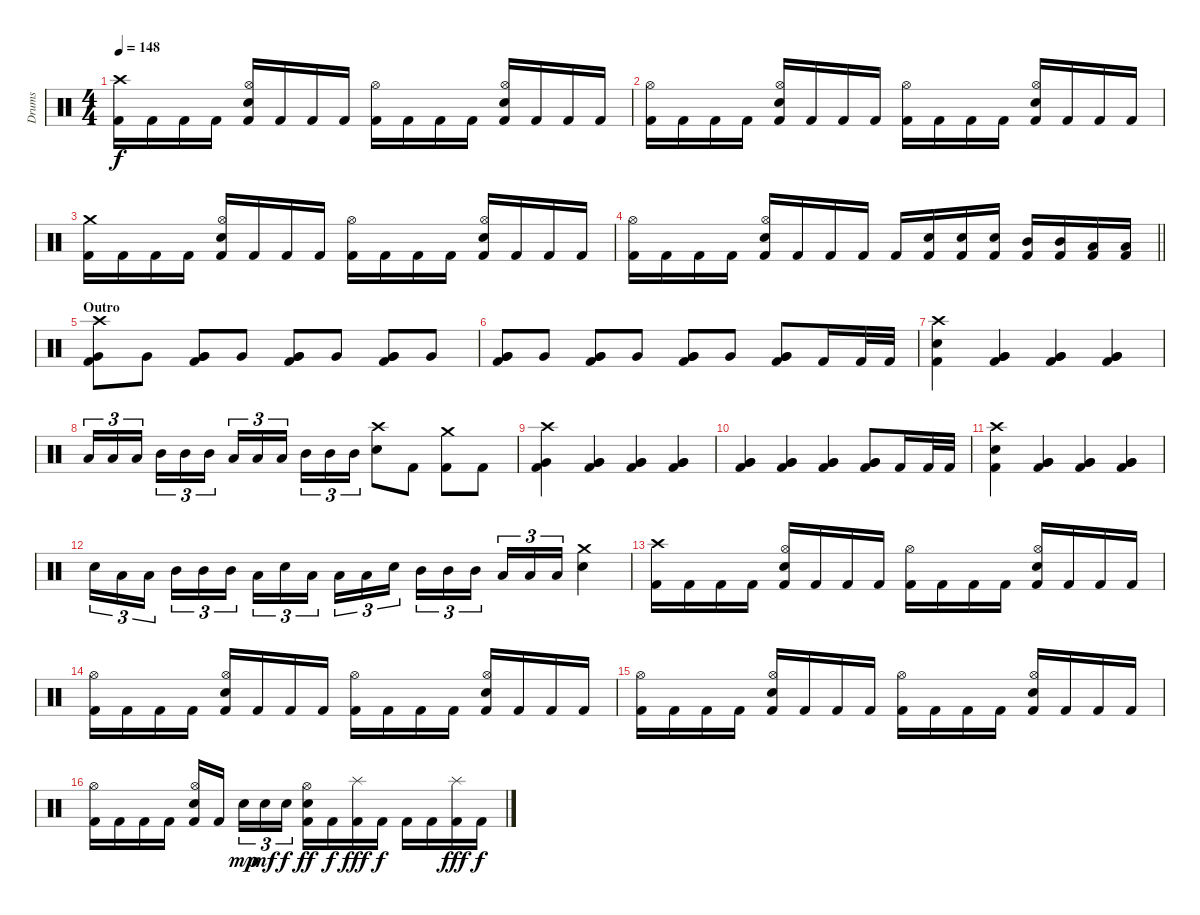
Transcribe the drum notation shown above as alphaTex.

\track ("Drums" "Drums") {instrument percussion}
\staff {score}
\articulation defaults
\ts (4 4)
\tempo 148
\clef neutral
\ks c
("Crash high (hit)" "Kick (hit) 2").16{dy f} "Kick (hit) 2".16 "Kick (hit) 2".16 "Kick (hit) 2".16 ("Hi-Hat (open)" "Electric Snare (hit)" "Kick (hit) 2").16 "Kick (hit) 2".16 "Kick (hit) 2".16 "Kick (hit) 2".16 ("Hi-Hat (open)" "Kick (hit) 2").16 "Kick (hit) 2".16 "Kick (hit) 2".16 "Kick (hit) 2".16 ("Hi-Hat (open)" "Electric Snare (hit)" "Kick (hit) 2").16 "Kick (hit) 2".16 "Kick (hit) 2".16 "Kick (hit) 2".16 |
("Hi-Hat (open)" "Kick (hit) 2").16 "Kick (hit) 2".16 "Kick (hit) 2".16 "Kick (hit) 2".16 ("Hi-Hat (open)" "Electric Snare (hit)" "Kick (hit) 2").16 "Kick (hit) 2".16 "Kick (hit) 2".16 "Kick (hit) 2".16 ("Hi-Hat (open)" "Kick (hit) 2").16 "Kick (hit) 2".16 "Kick (hit) 2".16 "Kick (hit) 2".16 ("Hi-Hat (open)" "Electric Snare (hit)" "Kick (hit) 2").16 "Kick (hit) 2".16 "Kick (hit) 2".16 "Kick (hit) 2".16 |
("Crash medium (hit)" "Kick (hit) 2").16 "Kick (hit) 2".16 "Kick (hit) 2".16 "Kick (hit) 2".16 ("Hi-Hat (open)" "Electric Snare (hit)" "Kick (hit) 2").16 "Kick (hit) 2".16 "Kick (hit) 2".16 "Kick (hit) 2".16 ("Hi-Hat (open)" "Kick (hit) 2").16 "Kick (hit) 2".16 "Kick (hit) 2".16 "Kick (hit) 2".16 ("Hi-Hat (open)" "Electric Snare (hit)" "Kick (hit) 2").16 "Kick (hit) 2".16 "Kick (hit) 2".16 "Kick (hit) 2".16 |
\barLineRight lightlight
("Hi-Hat (open)" "Kick (hit) 2").16 "Kick (hit) 2".16 "Kick (hit) 2".16 "Kick (hit) 2".16 ("Hi-Hat (open)" "Electric Snare (hit)" "Kick (hit) 2").16 "Kick (hit) 2".16 "Kick (hit) 2".16 "Kick (hit) 2".16 "Kick (hit) 2".16 ("Electric Snare (hit)" "Kick (hit) 2").16 ("Electric Snare (hit)" "Kick (hit) 2").16 ("Electric Snare (hit)" "Kick (hit) 2").16 ("Mid Tom (hit)" "Kick (hit) 2").16 ("Mid Tom (hit)" "Kick (hit) 2").16 ("Low Tom (hit)" "Kick (hit) 2").16 ("Low Tom (hit)" "Kick (hit) 2").16 |
\section ("" "Outro")
("Crash high (hit)" "Very Low Tom (hit)" "Kick (hit) 2").8 "Very Low Tom (hit)".8 ("Very Low Tom (hit)" "Very Low Tom (hit)" "Kick (hit) 2").8 "Very Low Tom (hit)".8 ("Very Low Tom (hit)" "Very Low Tom (hit)" "Kick (hit) 2").8 "Very Low Tom (hit)".8 ("Very Low Tom (hit)" "Very Low Tom (hit)" "Kick (hit) 2").8 "Very Low Tom (hit)".8 |
("Very Low Tom (hit)" "Very Low Tom (hit)" "Kick (hit) 2").8 "Very Low Tom (hit)".8 ("Very Low Tom (hit)" "Very Low Tom (hit)" "Kick (hit) 2").8 "Very Low Tom (hit)".8 ("Very Low Tom (hit)" "Very Low Tom (hit)" "Kick (hit) 2").8 "Very Low Tom (hit)".8 ("Very Low Tom (hit)" "Very Low Tom (hit)" "Kick (hit) 2").8 "Kick (hit) 2".16 "Kick (hit) 2".32 "Kick (hit) 2".32 |
("Crash high (hit)" "Electric Snare (hit)" "Kick (hit) 2").4 ("Very Low Tom (hit)" "Very Low Tom (hit)" "Kick (hit) 2").4 ("Very Low Tom (hit)" "Very Low Tom (hit)" "Kick (hit) 2").4 ("Very Low Tom (hit)" "Very Low Tom (hit)" "Kick (hit) 2").4 |
"Low Tom (hit)".16{tu (3 2)} "Low Tom (hit)".16{tu (3 2)} "Low Tom (hit)".16{tu (3 2) beam splitsecondary} "Mid Tom (hit)".16{tu (3 2)} "Mid Tom (hit)".16{tu (3 2)} "Mid Tom (hit)".16{tu (3 2)} "Low Tom (hit)".16{tu (3 2)} "Low Tom (hit)".16{tu (3 2)} "Low Tom (hit)".16{tu (3 2) beam splitsecondary} "Mid Tom (hit)".16{tu (3 2)} "Mid Tom (hit)".16{tu (3 2)} "Mid Tom (hit)".16{tu (3 2)} ("Crash high (hit)" "Electric Snare (hit)").8 "Kick (hit) 2".8 ("Crash medium (hit)" "Kick (hit) 2").8 "Kick (hit) 2".8 |
("Crash high (hit)" "Very Low Tom (hit)" "Kick (hit) 2").4 ("Very Low Tom (hit)" "Very Low Tom (hit)" "Kick (hit) 2").4 ("Very Low Tom (hit)" "Very Low Tom (hit)" "Kick (hit) 2").4 ("Very Low Tom (hit)" "Very Low Tom (hit)" "Kick (hit) 2").4 |
("Very Low Tom (hit)" "Very Low Tom (hit)" "Kick (hit) 2").4 ("Very Low Tom (hit)" "Very Low Tom (hit)" "Kick (hit) 2").4 ("Very Low Tom (hit)" "Very Low Tom (hit)" "Kick (hit) 2").4 ("Very Low Tom (hit)" "Very Low Tom (hit)" "Kick (hit) 2").8 "Kick (hit) 2".16 "Kick (hit) 2".32 "Kick (hit) 2".32 |
("Crash high (hit)" "Electric Snare (hit)" "Kick (hit) 2").4 ("Very Low Tom (hit)" "Very Low Tom (hit)" "Kick (hit) 2").4 ("Very Low Tom (hit)" "Very Low Tom (hit)" "Kick (hit) 2").4 ("Very Low Tom (hit)" "Very Low Tom (hit)" "Kick (hit) 2").4 |
"Electric Snare (hit)".16{tu (3 2)} "Low Tom (hit)".16{tu (3 2)} "Low Tom (hit)".16{tu (3 2) beam splitsecondary} "Mid Tom (hit)".16{tu (3 2)} "Mid Tom (hit)".16{tu (3 2)} "Mid Tom (hit)".16{tu (3 2)} "Low Tom (hit)".16{tu (3 2)} "Electric Snare (hit)".16{tu (3 2)} "Low Tom (hit)".16{tu (3 2) beam splitsecondary} "Low Tom (hit)".16{tu (3 2)} "Low Tom (hit)".16{tu (3 2)} "Electric Snare (hit)".16{tu (3 2)} "Mid Tom (hit)".16{tu (3 2)} "Mid Tom (hit)".16{tu (3 2)} "Mid Tom (hit)".16{tu (3 2) beam splitsecondary} "Low Tom (hit)".16{tu (3 2)} "Low Tom (hit)".16{tu (3 2)} "Low Tom (hit)".16{tu (3 2)} ("Crash medium (hit)" "Electric Snare (hit)").4 |
("Crash high (hit)" "Kick (hit) 2").16 "Kick (hit) 2".16 "Kick (hit) 2".16 "Kick (hit) 2".16 ("Hi-Hat (open)" "Electric Snare (hit)" "Kick (hit) 2").16 "Kick (hit) 2".16 "Kick (hit) 2".16 "Kick (hit) 2".16 ("Hi-Hat (open)" "Kick (hit) 2").16 "Kick (hit) 2".16 "Kick (hit) 2".16 "Kick (hit) 2".16 ("Hi-Hat (open)" "Electric Snare (hit)" "Kick (hit) 2").16 "Kick (hit) 2".16 "Kick (hit) 2".16 "Kick (hit) 2".16 |
("Hi-Hat (open)" "Kick (hit) 2").16 "Kick (hit) 2".16 "Kick (hit) 2".16 "Kick (hit) 2".16 ("Hi-Hat (open)" "Electric Snare (hit)" "Kick (hit) 2").16 "Kick (hit) 2".16 "Kick (hit) 2".16 "Kick (hit) 2".16 ("Hi-Hat (open)" "Kick (hit) 2").16 "Kick (hit) 2".16 "Kick (hit) 2".16 "Kick (hit) 2".16 ("Hi-Hat (open)" "Electric Snare (hit)" "Kick (hit) 2").16 "Kick (hit) 2".16 "Kick (hit) 2".16 "Kick (hit) 2".16 |
("Hi-Hat (open)" "Kick (hit) 2").16 "Kick (hit) 2".16 "Kick (hit) 2".16 "Kick (hit) 2".16 ("Hi-Hat (open)" "Electric Snare (hit)" "Kick (hit) 2").16 "Kick (hit) 2".16 "Kick (hit) 2".16 "Kick (hit) 2".16 ("Hi-Hat (open)" "Kick (hit) 2").16 "Kick (hit) 2".16 "Kick (hit) 2".16 "Kick (hit) 2".16 ("Hi-Hat (open)" "Electric Snare (hit)" "Kick (hit) 2").16 "Kick (hit) 2".16 "Kick (hit) 2".16 "Kick (hit) 2".16 |
("Hi-Hat (open)" "Kick (hit) 2").16 "Kick (hit) 2".16 "Kick (hit) 2".16 "Kick (hit) 2".16 ("Hi-Hat (open)" "Electric Snare (hit)" "Kick (hit) 2").16 "Kick (hit) 2".16{beam splitsecondary} "Electric Snare (hit)".16{tu (3 2) dy mp} "Electric Snare (hit)".16{tu (3 2) dy mf} "Electric Snare (hit)".16{tu (3 2) dy f} ("Hi-Hat (open)" "Electric Snare (hit)" "Kick (hit) 2").16{dy ff} "Kick (hit) 2".16{dy f} ("Splash (hit)" "Kick (hit) 2").16{dy fff} "Kick (hit) 2".16{dy f} "Kick (hit) 2".16 "Kick (hit) 2".16 ("Splash (hit)" "Kick (hit) 2").16{dy fff} "Kick (hit) 2".16{dy f}
